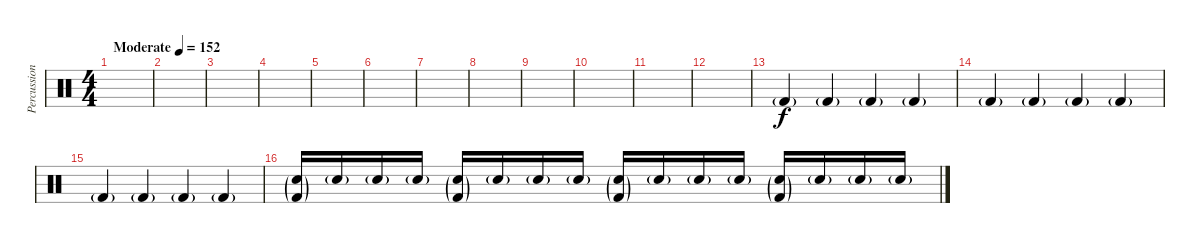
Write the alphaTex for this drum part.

\track ("Percussion" "Percussion") {instrument percussion}
\staff {score}
\articulation defaults
\ts (4 4)
\tempo (152 "Moderate")
\clef neutral
\ks c
|
|
|
|
|
|
|
|
|
|
|
|
"Kick (hit) 2"{g}.4 "Kick (hit) 2"{g}.4 "Kick (hit) 2"{g}.4 "Kick (hit) 2"{g}.4 |
"Kick (hit) 2"{g}.4 "Kick (hit) 2"{g}.4 "Kick (hit) 2"{g}.4 "Kick (hit) 2"{g}.4 |
"Kick (hit) 2"{g}.4 "Kick (hit) 2"{g}.4 "Kick (hit) 2"{g}.4 "Kick (hit) 2"{g}.4 |
("Snare (hit) 2"{g} "Kick (hit) 2"{g}).16 "Snare (hit) 2"{g}.16 "Snare (hit) 2"{g}.16 "Snare (hit) 2"{g}.16 ("Snare (hit) 2"{g} "Kick (hit) 2"{g}).16 "Snare (hit) 2"{g}.16 "Snare (hit) 2"{g}.16 "Snare (hit) 2"{g}.16 ("Snare (hit) 2"{g} "Kick (hit) 2"{g}).16 "Snare (hit) 2"{g}.16 "Snare (hit) 2"{g}.16 "Snare (hit) 2"{g}.16 ("Snare (hit) 2"{g} "Kick (hit) 2"{g}).16 "Snare (hit) 2"{g}.16 "Snare (hit) 2"{g}.16 "Snare (hit) 2"{g}.16
